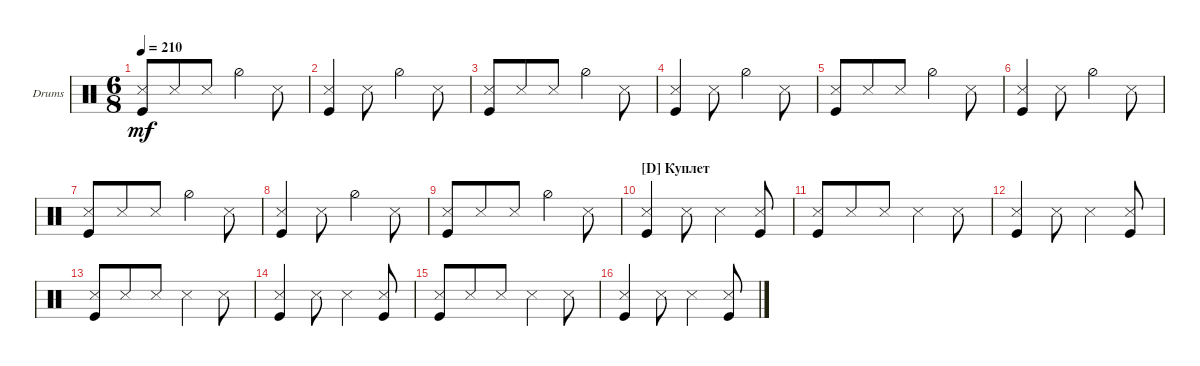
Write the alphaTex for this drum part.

\defaultSystemsLayout 4
\bracketExtendMode nobrackets
\firstSystemTrackNameOrientation horizontal
\otherSystemsTrackNameOrientation horizontal
\track ("Drumkit" "Drums") {instrument percussion}
\staff {score}
\articulation defaults
\ts (6 8)
\tempo 210
\clef neutral
\scale
0.333333
\ks c
("Kick (hit)" "Snare (side stick) 3").8{dy mf} "Snare (side stick) 3".8 "Snare (side stick) 3".8 "Hi-Hat (half)".4 "Snare (side stick) 3".8 |
\scale
0.333333 ("Kick (hit)" "Snare (side stick) 3").4 "Snare (side stick) 3".8 "Hi-Hat (half)".4 "Snare (side stick) 3".8 |
\scale
0.333333 ("Kick (hit)" "Snare (side stick) 3").8 "Snare (side stick) 3".8 "Snare (side stick) 3".8 "Hi-Hat (half)".4 "Snare (side stick) 3".8 |
\scale
0.333333 ("Kick (hit)" "Snare (side stick) 3").4 "Snare (side stick) 3".8 "Hi-Hat (half)".4 "Snare (side stick) 3".8 |
\scale
0.333333 ("Kick (hit)" "Snare (side stick) 3").8 "Snare (side stick) 3".8 "Snare (side stick) 3".8 "Hi-Hat (half)".4 "Snare (side stick) 3".8 |
\scale
0.333333 ("Kick (hit)" "Snare (side stick) 3").4 "Snare (side stick) 3".8 "Hi-Hat (half)".4 "Snare (side stick) 3".8 |
\scale
0.333333 ("Kick (hit)" "Snare (side stick) 3").8 "Snare (side stick) 3".8 "Snare (side stick) 3".8 "Hi-Hat (half)".4 "Snare (side stick) 3".8 |
\scale
0.333333 ("Kick (hit)" "Snare (side stick) 3").4 "Snare (side stick) 3".8 "Hi-Hat (half)".4 "Snare (side stick) 3".8 |
\scale
0.333333 ("Kick (hit)" "Snare (side stick) 3").8 "Snare (side stick) 3".8 "Snare (side stick) 3".8 "Hi-Hat (half)".4 "Snare (side stick) 3".8 |
\section ("D" "Куплет")
\scale
0.333333 ("Kick (hit)" "Snare (side stick) 3").4 "Snare (side stick) 3".8 "Snare (side stick) 3".4 ("Kick (hit)" "Snare (side stick) 3").8 |
\scale
0.333333 ("Kick (hit)" "Snare (side stick) 3").8 "Snare (side stick) 3".8 "Snare (side stick) 3".8 "Snare (side stick) 3".4 "Snare (side stick) 3".8 |
\scale
0.333333 ("Kick (hit)" "Snare (side stick) 3").4 "Snare (side stick) 3".8 "Snare (side stick) 3".4 ("Kick (hit)" "Snare (side stick) 3").8 |
\scale
0.333333 ("Kick (hit)" "Snare (side stick) 3").8 "Snare (side stick) 3".8 "Snare (side stick) 3".8 "Snare (side stick) 3".4 "Snare (side stick) 3".8 |
\scale
0.333333 ("Kick (hit)" "Snare (side stick) 3").4 "Snare (side stick) 3".8 "Snare (side stick) 3".4 ("Kick (hit)" "Snare (side stick) 3").8 |
\scale
0.333333 ("Kick (hit)" "Snare (side stick) 3").8 "Snare (side stick) 3".8 "Snare (side stick) 3".8 "Snare (side stick) 3".4 "Snare (side stick) 3".8 |
\scale
0.333333 ("Kick (hit)" "Snare (side stick) 3").4 "Snare (side stick) 3".8 "Snare (side stick) 3".4 ("Kick (hit)" "Snare (side stick) 3").8
